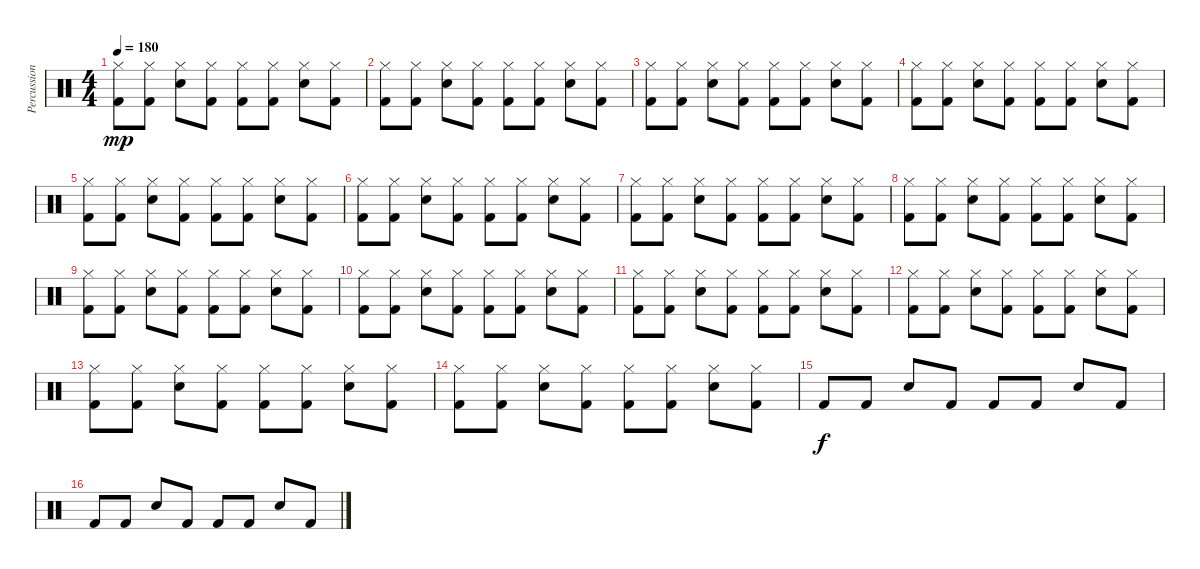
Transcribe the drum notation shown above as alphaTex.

\track ("Percussion" "Percussion") {instrument percussion}
\staff {score}
\articulation defaults
\ts (4 4)
\tempo 180
\clef neutral
\ks c
("Hi-Hat (closed)" "Kick (hit) 2").8{dy mp} ("Hi-Hat (closed)" "Kick (hit) 2").8 ("Hi-Hat (closed)" "Snare (hit) 2").8 ("Hi-Hat (closed)" "Kick (hit) 2").8 ("Hi-Hat (closed)" "Kick (hit) 2").8 ("Hi-Hat (closed)" "Kick (hit) 2").8 ("Hi-Hat (closed)" "Snare (hit) 2").8 ("Hi-Hat (closed)" "Kick (hit) 2").8 |
("Hi-Hat (closed)" "Kick (hit) 2").8 ("Hi-Hat (closed)" "Kick (hit) 2").8 ("Hi-Hat (closed)" "Snare (hit) 2").8 ("Hi-Hat (closed)" "Kick (hit) 2").8 ("Hi-Hat (closed)" "Kick (hit) 2").8 ("Hi-Hat (closed)" "Kick (hit) 2").8 ("Hi-Hat (closed)" "Snare (hit) 2").8 ("Hi-Hat (closed)" "Kick (hit) 2").8 |
("Hi-Hat (closed)" "Kick (hit) 2").8 ("Hi-Hat (closed)" "Kick (hit) 2").8 ("Hi-Hat (closed)" "Snare (hit) 2").8 ("Hi-Hat (closed)" "Kick (hit) 2").8 ("Hi-Hat (closed)" "Kick (hit) 2").8 ("Hi-Hat (closed)" "Kick (hit) 2").8 ("Hi-Hat (closed)" "Snare (hit) 2").8 ("Hi-Hat (closed)" "Kick (hit) 2").8 |
("Hi-Hat (closed)" "Kick (hit) 2").8 ("Hi-Hat (closed)" "Kick (hit) 2").8 ("Hi-Hat (closed)" "Snare (hit) 2").8 ("Hi-Hat (closed)" "Kick (hit) 2").8 ("Hi-Hat (closed)" "Kick (hit) 2").8 ("Hi-Hat (closed)" "Kick (hit) 2").8 ("Hi-Hat (closed)" "Snare (hit) 2").8 ("Hi-Hat (closed)" "Kick (hit) 2").8 |
("Hi-Hat (closed)" "Kick (hit) 2").8 ("Hi-Hat (closed)" "Kick (hit) 2").8 ("Hi-Hat (closed)" "Snare (hit) 2").8 ("Hi-Hat (closed)" "Kick (hit) 2").8 ("Hi-Hat (closed)" "Kick (hit) 2").8 ("Hi-Hat (closed)" "Kick (hit) 2").8 ("Hi-Hat (closed)" "Snare (hit) 2").8 ("Hi-Hat (closed)" "Kick (hit) 2").8 |
("Hi-Hat (closed)" "Kick (hit) 2").8 ("Hi-Hat (closed)" "Kick (hit) 2").8 ("Hi-Hat (closed)" "Snare (hit) 2").8 ("Hi-Hat (closed)" "Kick (hit) 2").8 ("Hi-Hat (closed)" "Kick (hit) 2").8 ("Hi-Hat (closed)" "Kick (hit) 2").8 ("Hi-Hat (closed)" "Snare (hit) 2").8 ("Hi-Hat (closed)" "Kick (hit) 2").8 |
("Hi-Hat (closed)" "Kick (hit) 2").8 ("Hi-Hat (closed)" "Kick (hit) 2").8 ("Hi-Hat (closed)" "Snare (hit) 2").8 ("Hi-Hat (closed)" "Kick (hit) 2").8 ("Hi-Hat (closed)" "Kick (hit) 2").8 ("Hi-Hat (closed)" "Kick (hit) 2").8 ("Hi-Hat (closed)" "Snare (hit) 2").8 ("Hi-Hat (closed)" "Kick (hit) 2").8 |
("Hi-Hat (closed)" "Kick (hit) 2").8 ("Hi-Hat (closed)" "Kick (hit) 2").8 ("Hi-Hat (closed)" "Snare (hit) 2").8 ("Hi-Hat (closed)" "Kick (hit) 2").8 ("Hi-Hat (closed)" "Kick (hit) 2").8 ("Hi-Hat (closed)" "Kick (hit) 2").8 ("Hi-Hat (closed)" "Snare (hit) 2").8 ("Hi-Hat (closed)" "Kick (hit) 2").8 |
("Hi-Hat (closed)" "Kick (hit) 2").8 ("Hi-Hat (closed)" "Kick (hit) 2").8 ("Hi-Hat (closed)" "Snare (hit) 2").8 ("Hi-Hat (closed)" "Kick (hit) 2").8 ("Hi-Hat (closed)" "Kick (hit) 2").8 ("Hi-Hat (closed)" "Kick (hit) 2").8 ("Hi-Hat (closed)" "Snare (hit) 2").8 ("Hi-Hat (closed)" "Kick (hit) 2").8 |
("Hi-Hat (closed)" "Kick (hit) 2").8 ("Hi-Hat (closed)" "Kick (hit) 2").8 ("Hi-Hat (closed)" "Snare (hit) 2").8 ("Hi-Hat (closed)" "Kick (hit) 2").8 ("Hi-Hat (closed)" "Kick (hit) 2").8 ("Hi-Hat (closed)" "Kick (hit) 2").8 ("Hi-Hat (closed)" "Snare (hit) 2").8 ("Hi-Hat (closed)" "Kick (hit) 2").8 |
("Hi-Hat (closed)" "Kick (hit) 2").8 ("Hi-Hat (closed)" "Kick (hit) 2").8 ("Hi-Hat (closed)" "Snare (hit) 2").8 ("Hi-Hat (closed)" "Kick (hit) 2").8 ("Hi-Hat (closed)" "Kick (hit) 2").8 ("Hi-Hat (closed)" "Kick (hit) 2").8 ("Hi-Hat (closed)" "Snare (hit) 2").8 ("Hi-Hat (closed)" "Kick (hit) 2").8 |
("Hi-Hat (closed)" "Kick (hit) 2").8 ("Hi-Hat (closed)" "Kick (hit) 2").8 ("Hi-Hat (closed)" "Snare (hit) 2").8 ("Hi-Hat (closed)" "Kick (hit) 2").8 ("Hi-Hat (closed)" "Kick (hit) 2").8 ("Hi-Hat (closed)" "Kick (hit) 2").8 ("Hi-Hat (closed)" "Snare (hit) 2").8 ("Hi-Hat (closed)" "Kick (hit) 2").8 |
("Hi-Hat (closed)" "Kick (hit) 2").8 ("Hi-Hat (closed)" "Kick (hit) 2").8 ("Hi-Hat (closed)" "Snare (hit) 2").8 ("Hi-Hat (closed)" "Kick (hit) 2").8 ("Hi-Hat (closed)" "Kick (hit) 2").8 ("Hi-Hat (closed)" "Kick (hit) 2").8 ("Hi-Hat (closed)" "Snare (hit) 2").8 ("Hi-Hat (closed)" "Kick (hit) 2").8 |
("Hi-Hat (closed)" "Kick (hit) 2").8 ("Hi-Hat (closed)" "Kick (hit) 2").8 ("Hi-Hat (closed)" "Snare (hit) 2").8 ("Hi-Hat (closed)" "Kick (hit) 2").8 ("Hi-Hat (closed)" "Kick (hit) 2").8 ("Hi-Hat (closed)" "Kick (hit) 2").8 ("Hi-Hat (closed)" "Snare (hit) 2").8 ("Hi-Hat (closed)" "Kick (hit) 2").8 |
"Kick (hit) 2".8{dy f} "Kick (hit) 2".8 "Snare (hit) 2".8 "Kick (hit) 2".8 "Kick (hit) 2".8 "Kick (hit) 2".8 "Snare (hit) 2".8 "Kick (hit) 2".8 |
"Kick (hit) 2".8 "Kick (hit) 2".8 "Snare (hit) 2".8 "Kick (hit) 2".8 "Kick (hit) 2".8 "Kick (hit) 2".8 "Snare (hit) 2".8 "Kick (hit) 2".8
